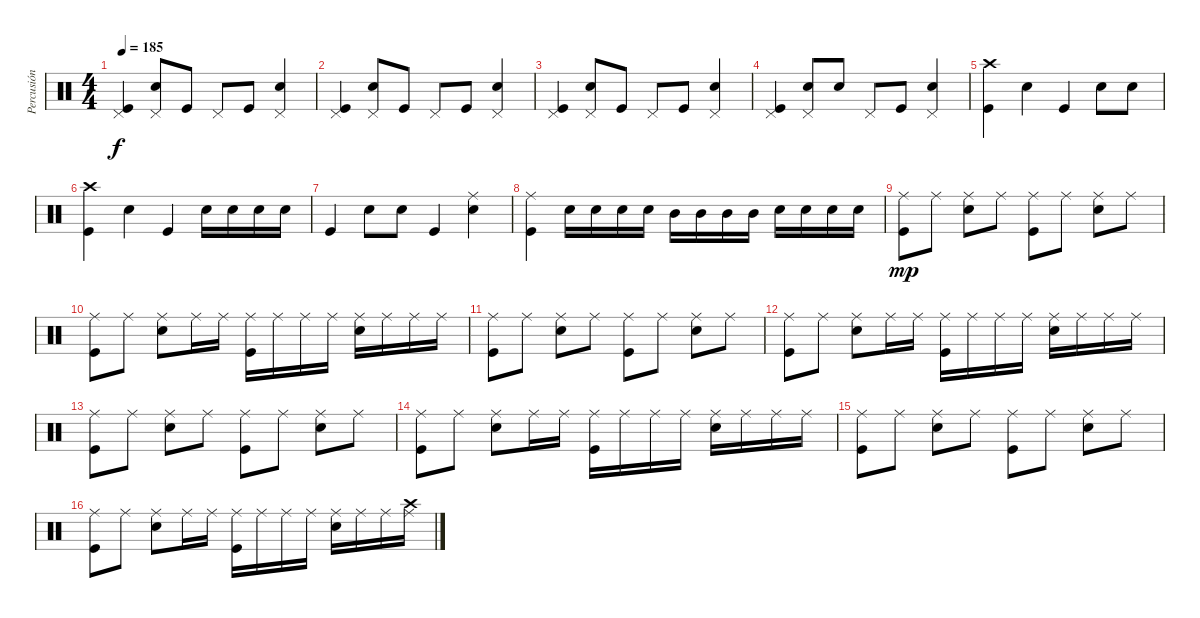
\track ("Percusión" "Percusión") {instrument percussion}
\staff {score}
\articulation defaults
\ts (4 4)
\tempo 185
\clef neutral
\ks c
("Kick (hit)" "Pedal Hi-Hat (hit)").4{dy f} ("Snare (hit) 2" "Pedal Hi-Hat (hit)").8 "Kick (hit)".8 "Pedal Hi-Hat (hit)".8 "Kick (hit)".8 ("Snare (hit) 2" "Pedal Hi-Hat (hit)").4 |
("Kick (hit)" "Pedal Hi-Hat (hit)").4 ("Snare (hit) 2" "Pedal Hi-Hat (hit)").8 "Kick (hit)".8 "Pedal Hi-Hat (hit)".8 "Kick (hit)".8 ("Snare (hit) 2" "Pedal Hi-Hat (hit)").4 |
("Kick (hit)" "Pedal Hi-Hat (hit)").4 ("Snare (hit) 2" "Pedal Hi-Hat (hit)").8 "Kick (hit)".8 "Pedal Hi-Hat (hit)".8 "Kick (hit)".8 ("Snare (hit) 2" "Pedal Hi-Hat (hit)").4 |
("Kick (hit)" "Pedal Hi-Hat (hit)").4 ("Snare (hit) 2" "Pedal Hi-Hat (hit)").8 "Snare (hit) 2".8 "Pedal Hi-Hat (hit)".8 "Kick (hit)".8 ("Snare (hit) 2" "Pedal Hi-Hat (hit)").4 |
("Kick (hit)" "Crash high (hit)").4 "Snare (hit) 2".4 "Kick (hit)".4 "Snare (hit) 2".8 "Snare (hit) 2".8 |
("Kick (hit)" "Crash high (hit)").4 "Snare (hit) 2".4 "Kick (hit)".4 "Snare (hit) 2".16 "Snare (hit) 2".16 "Snare (hit) 2".16 "Snare (hit) 2".16 |
"Kick (hit)".4 "Snare (hit) 2".8 "Snare (hit) 2".8 "Kick (hit)".4 ("Snare (hit) 2" "Ride (middle)").4 |
("Kick (hit)" "Ride (middle)").4 "Snare (hit) 2".16 "Snare (hit) 2".16 "Snare (hit) 2".16 "Snare (hit) 2".16 "Mid Tom (hit)".16 "Mid Tom (hit)".16 "Mid Tom (hit)".16 "Mid Tom (hit)".16 "Snare (hit) 2".16 "Snare (hit) 2".16 "Snare (hit) 2".16 "Snare (hit) 2".16 |
("Kick (hit)" "Ride (middle)").8{dy mp} "Ride (middle)".8 ("Snare (hit) 2" "Ride (middle)").8 "Ride (middle)".8 ("Kick (hit)" "Ride (middle)").8 "Ride (middle)".8 ("Snare (hit) 2" "Ride (middle)").8 "Ride (middle)".8 |
("Kick (hit)" "Ride (middle)").8 "Ride (middle)".8 ("Snare (hit) 2" "Ride (middle)").8 "Ride (middle)".16 "Ride (middle)".16 ("Kick (hit)" "Ride (middle)").16 "Ride (middle)".16 "Ride (middle)".16 "Ride (middle)".16 ("Snare (hit) 2" "Ride (middle)").16 "Ride (middle)".16 "Ride (middle)".16 "Ride (middle)".16 |
("Kick (hit)" "Ride (middle)").8 "Ride (middle)".8 ("Snare (hit) 2" "Ride (middle)").8 "Ride (middle)".8 ("Kick (hit)" "Ride (middle)").8 "Ride (middle)".8 ("Snare (hit) 2" "Ride (middle)").8 "Ride (middle)".8 |
("Kick (hit)" "Ride (middle)").8 "Ride (middle)".8 ("Snare (hit) 2" "Ride (middle)").8 "Ride (middle)".16 "Ride (middle)".16 ("Kick (hit)" "Ride (middle)").16 "Ride (middle)".16 "Ride (middle)".16 "Ride (middle)".16 ("Snare (hit) 2" "Ride (middle)").16 "Ride (middle)".16 "Ride (middle)".16 "Ride (middle)".16 |
("Kick (hit)" "Ride (middle)").8 "Ride (middle)".8 ("Snare (hit) 2" "Ride (middle)").8 "Ride (middle)".8 ("Kick (hit)" "Ride (middle)").8 "Ride (middle)".8 ("Snare (hit) 2" "Ride (middle)").8 "Ride (middle)".8 |
("Kick (hit)" "Ride (middle)").8 "Ride (middle)".8 ("Snare (hit) 2" "Ride (middle)").8 "Ride (middle)".16 "Ride (middle)".16 ("Kick (hit)" "Ride (middle)").16 "Ride (middle)".16 "Ride (middle)".16 "Ride (middle)".16 ("Snare (hit) 2" "Ride (middle)").16 "Ride (middle)".16 "Ride (middle)".16 "Ride (middle)".16 |
("Kick (hit)" "Ride (middle)").8 "Ride (middle)".8 ("Snare (hit) 2" "Ride (middle)").8 "Ride (middle)".8 ("Kick (hit)" "Ride (middle)").8 "Ride (middle)".8 ("Snare (hit) 2" "Ride (middle)").8 "Ride (middle)".8 |
("Kick (hit)" "Ride (middle)").8 "Ride (middle)".8 ("Snare (hit) 2" "Ride (middle)").8 "Ride (middle)".16 "Ride (middle)".16 ("Kick (hit)" "Ride (middle)").16 "Ride (middle)".16 "Ride (middle)".16 "Ride (middle)".16 ("Snare (hit) 2" "Ride (middle)").16 "Ride (middle)".16 "Ride (middle)".16 ("Crash high (hit)" "Ride (middle)").16
